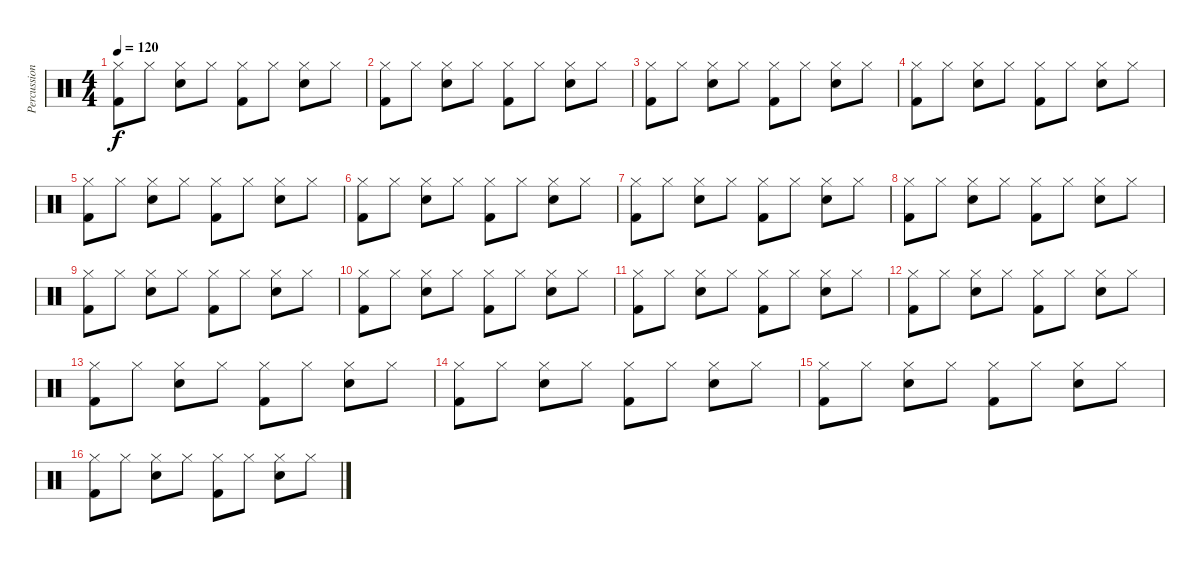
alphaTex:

\track ("Percussions" "Percussion") {instrument percussion}
\staff {score}
\articulation defaults
\ts (4 4)
\tempo 120
\clef neutral
\ks c
("Hi-Hat (closed)" "Kick (hit) 2").8{dy f} "Hi-Hat (closed)".8 ("Hi-Hat (closed)" "Electric Snare (hit)").8 "Hi-Hat (closed)".8 ("Hi-Hat (closed)" "Kick (hit) 2").8 "Hi-Hat (closed)".8 ("Hi-Hat (closed)" "Electric Snare (hit)").8 "Hi-Hat (closed)".8 |
("Hi-Hat (closed)" "Kick (hit) 2").8 "Hi-Hat (closed)".8 ("Hi-Hat (closed)" "Electric Snare (hit)").8 "Hi-Hat (closed)".8 ("Hi-Hat (closed)" "Kick (hit) 2").8 "Hi-Hat (closed)".8 ("Hi-Hat (closed)" "Electric Snare (hit)").8 "Hi-Hat (closed)".8 |
("Hi-Hat (closed)" "Kick (hit) 2").8 "Hi-Hat (closed)".8 ("Hi-Hat (closed)" "Electric Snare (hit)").8 "Hi-Hat (closed)".8 ("Hi-Hat (closed)" "Kick (hit) 2").8 "Hi-Hat (closed)".8 ("Hi-Hat (closed)" "Electric Snare (hit)").8 "Hi-Hat (closed)".8 |
("Hi-Hat (closed)" "Kick (hit) 2").8 "Hi-Hat (closed)".8 ("Hi-Hat (closed)" "Electric Snare (hit)").8 "Hi-Hat (closed)".8 ("Hi-Hat (closed)" "Kick (hit) 2").8 "Hi-Hat (closed)".8 ("Hi-Hat (closed)" "Electric Snare (hit)").8 "Hi-Hat (closed)".8 |
("Hi-Hat (closed)" "Kick (hit) 2").8 "Hi-Hat (closed)".8 ("Hi-Hat (closed)" "Electric Snare (hit)").8 "Hi-Hat (closed)".8 ("Hi-Hat (closed)" "Kick (hit) 2").8 "Hi-Hat (closed)".8 ("Hi-Hat (closed)" "Electric Snare (hit)").8 "Hi-Hat (closed)".8 |
("Hi-Hat (closed)" "Kick (hit) 2").8 "Hi-Hat (closed)".8 ("Hi-Hat (closed)" "Electric Snare (hit)").8 "Hi-Hat (closed)".8 ("Hi-Hat (closed)" "Kick (hit) 2").8 "Hi-Hat (closed)".8 ("Hi-Hat (closed)" "Electric Snare (hit)").8 "Hi-Hat (closed)".8 |
("Hi-Hat (closed)" "Kick (hit) 2").8 "Hi-Hat (closed)".8 ("Hi-Hat (closed)" "Electric Snare (hit)").8 "Hi-Hat (closed)".8 ("Hi-Hat (closed)" "Kick (hit) 2").8 "Hi-Hat (closed)".8 ("Hi-Hat (closed)" "Electric Snare (hit)").8 "Hi-Hat (closed)".8 |
("Hi-Hat (closed)" "Kick (hit) 2").8 "Hi-Hat (closed)".8 ("Hi-Hat (closed)" "Electric Snare (hit)").8 "Hi-Hat (closed)".8 ("Hi-Hat (closed)" "Kick (hit) 2").8 "Hi-Hat (closed)".8 ("Hi-Hat (closed)" "Electric Snare (hit)").8 "Hi-Hat (closed)".8 |
("Hi-Hat (closed)" "Kick (hit) 2").8 "Hi-Hat (closed)".8 ("Hi-Hat (closed)" "Electric Snare (hit)").8 "Hi-Hat (closed)".8 ("Hi-Hat (closed)" "Kick (hit) 2").8 "Hi-Hat (closed)".8 ("Hi-Hat (closed)" "Electric Snare (hit)").8 "Hi-Hat (closed)".8 |
("Hi-Hat (closed)" "Kick (hit) 2").8 "Hi-Hat (closed)".8 ("Hi-Hat (closed)" "Electric Snare (hit)").8 "Hi-Hat (closed)".8 ("Hi-Hat (closed)" "Kick (hit) 2").8 "Hi-Hat (closed)".8 ("Hi-Hat (closed)" "Electric Snare (hit)").8 "Hi-Hat (closed)".8 |
("Hi-Hat (closed)" "Kick (hit) 2").8 "Hi-Hat (closed)".8 ("Hi-Hat (closed)" "Electric Snare (hit)").8 "Hi-Hat (closed)".8 ("Hi-Hat (closed)" "Kick (hit) 2").8 "Hi-Hat (closed)".8 ("Hi-Hat (closed)" "Electric Snare (hit)").8 "Hi-Hat (closed)".8 |
("Hi-Hat (closed)" "Kick (hit) 2").8 "Hi-Hat (closed)".8 ("Hi-Hat (closed)" "Electric Snare (hit)").8 "Hi-Hat (closed)".8 ("Hi-Hat (closed)" "Kick (hit) 2").8 "Hi-Hat (closed)".8 ("Hi-Hat (closed)" "Electric Snare (hit)").8 "Hi-Hat (closed)".8 |
("Hi-Hat (closed)" "Kick (hit) 2").8 "Hi-Hat (closed)".8 ("Hi-Hat (closed)" "Electric Snare (hit)").8 "Hi-Hat (closed)".8 ("Hi-Hat (closed)" "Kick (hit) 2").8 "Hi-Hat (closed)".8 ("Hi-Hat (closed)" "Electric Snare (hit)").8 "Hi-Hat (closed)".8 |
("Hi-Hat (closed)" "Kick (hit) 2").8 "Hi-Hat (closed)".8 ("Hi-Hat (closed)" "Electric Snare (hit)").8 "Hi-Hat (closed)".8 ("Hi-Hat (closed)" "Kick (hit) 2").8 "Hi-Hat (closed)".8 ("Hi-Hat (closed)" "Electric Snare (hit)").8 "Hi-Hat (closed)".8 |
("Hi-Hat (closed)" "Kick (hit) 2").8 "Hi-Hat (closed)".8 ("Hi-Hat (closed)" "Electric Snare (hit)").8 "Hi-Hat (closed)".8 ("Hi-Hat (closed)" "Kick (hit) 2").8 "Hi-Hat (closed)".8 ("Hi-Hat (closed)" "Electric Snare (hit)").8 "Hi-Hat (closed)".8 |
("Hi-Hat (closed)" "Kick (hit) 2").8 "Hi-Hat (closed)".8 ("Hi-Hat (closed)" "Electric Snare (hit)").8 "Hi-Hat (closed)".8 ("Hi-Hat (closed)" "Kick (hit) 2").8 "Hi-Hat (closed)".8 ("Hi-Hat (closed)" "Electric Snare (hit)").8 "Hi-Hat (closed)".8
